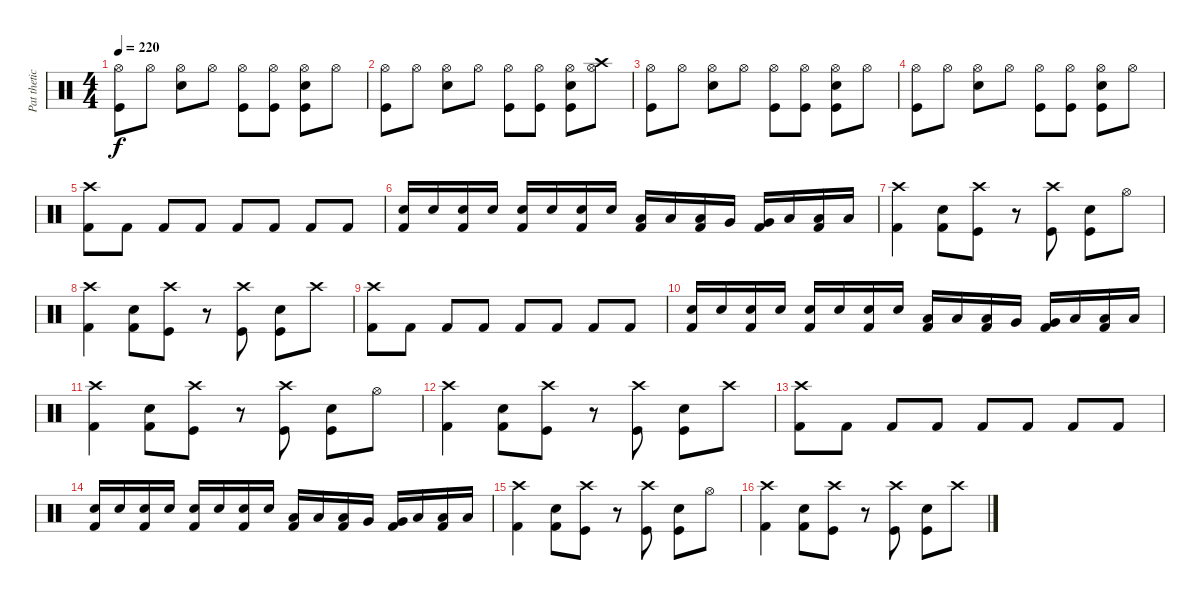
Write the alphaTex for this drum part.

\track ("Pat thetic (Drums)" "Pat thetic") {instrument percussion}
\staff {score}
\articulation defaults
\ts (4 4)
\tempo 220
\clef neutral
\ks c
("Kick (hit)" "Hi-Hat (open)").8{dy f} "Hi-Hat (open)".8 ("Electric Snare (hit)" "Hi-Hat (open)").8 "Hi-Hat (open)".8 ("Kick (hit)" "Hi-Hat (open)").8 ("Kick (hit)" "Hi-Hat (open)").8 ("Kick (hit)" "Electric Snare (hit)" "Hi-Hat (open)").8 "Hi-Hat (open)".8 |
("Kick (hit)" "Hi-Hat (open)").8 "Hi-Hat (open)".8 ("Electric Snare (hit)" "Hi-Hat (open)").8 "Hi-Hat (open)".8 ("Kick (hit)" "Hi-Hat (open)").8 ("Kick (hit)" "Hi-Hat (open)").8 ("Kick (hit)" "Electric Snare (hit)" "Hi-Hat (open)").8 ("Crash high (hit)" "Hi-Hat (open)").8 |
("Kick (hit)" "Hi-Hat (open)").8 "Hi-Hat (open)".8 ("Electric Snare (hit)" "Hi-Hat (open)").8 "Hi-Hat (open)".8 ("Kick (hit)" "Hi-Hat (open)").8 ("Kick (hit)" "Hi-Hat (open)").8 ("Kick (hit)" "Electric Snare (hit)" "Hi-Hat (open)").8 "Hi-Hat (open)".8 |
("Kick (hit)" "Hi-Hat (open)").8 "Hi-Hat (open)".8 ("Electric Snare (hit)" "Hi-Hat (open)").8 "Hi-Hat (open)".8 ("Kick (hit)" "Hi-Hat (open)").8 ("Kick (hit)" "Hi-Hat (open)").8 ("Kick (hit)" "Electric Snare (hit)" "Hi-Hat (open)").8 "Hi-Hat (open)".8 |
("Kick (hit) 2" "Crash high (hit)").8 "Kick (hit) 2".8 "Kick (hit) 2".8 "Kick (hit) 2".8 "Kick (hit) 2".8 "Kick (hit) 2".8 "Kick (hit) 2".8 "Kick (hit) 2".8 |
("Kick (hit) 2" "Electric Snare (hit)").16 "Electric Snare (hit)".16 ("Kick (hit) 2" "Electric Snare (hit)").16 "Electric Snare (hit)".16 ("Kick (hit) 2" "Electric Snare (hit)").16 "Electric Snare (hit)".16 ("Kick (hit) 2" "Electric Snare (hit)").16 "Electric Snare (hit)".16 ("Kick (hit) 2" "Low Tom (hit)").16 "Low Tom (hit)".16 ("Kick (hit) 2" "Low Tom (hit)").16 "Very Low Tom (hit)".16 ("Kick (hit) 2" "Very Low Tom (hit)").16 "Low Floor Tom (hit)".16 ("Kick (hit) 2" "Low Floor Tom (hit)").16 "Low Floor Tom (hit)".16 |
("Kick (hit) 2" "Crash high (hit)").4 ("Kick (hit) 2" "Electric Snare (hit)").8 ("Kick (hit)" "Crash high (hit)").8 r.8 ("Kick (hit)" "Crash high (hit)").8 ("Kick (hit)" "Electric Snare (hit)").8 "Hi-Hat (open)".8 |
("Kick (hit) 2" "Crash high (hit)").4 ("Kick (hit) 2" "Electric Snare (hit)").8 ("Kick (hit)" "Crash high (hit)").8 r.8 ("Kick (hit)" "Crash high (hit)").8 ("Kick (hit)" "Electric Snare (hit)").8 "Crash high (hit)".8 |
("Kick (hit) 2" "Crash high (hit)").8 "Kick (hit) 2".8 "Kick (hit) 2".8 "Kick (hit) 2".8 "Kick (hit) 2".8 "Kick (hit) 2".8 "Kick (hit) 2".8 "Kick (hit) 2".8 |
("Kick (hit) 2" "Electric Snare (hit)").16 "Electric Snare (hit)".16 ("Kick (hit) 2" "Electric Snare (hit)").16 "Electric Snare (hit)".16 ("Kick (hit) 2" "Electric Snare (hit)").16 "Electric Snare (hit)".16 ("Kick (hit) 2" "Electric Snare (hit)").16 "Electric Snare (hit)".16 ("Kick (hit) 2" "Low Tom (hit)").16 "Low Tom (hit)".16 ("Kick (hit) 2" "Low Tom (hit)").16 "Very Low Tom (hit)".16 ("Kick (hit) 2" "Very Low Tom (hit)").16 "Low Floor Tom (hit)".16 ("Kick (hit) 2" "Low Floor Tom (hit)").16 "Low Floor Tom (hit)".16 |
("Kick (hit) 2" "Crash high (hit)").4 ("Kick (hit) 2" "Electric Snare (hit)").8 ("Kick (hit)" "Crash high (hit)").8 r.8 ("Kick (hit)" "Crash high (hit)").8 ("Kick (hit)" "Electric Snare (hit)").8 "Hi-Hat (open)".8 |
("Kick (hit) 2" "Crash high (hit)").4 ("Kick (hit) 2" "Electric Snare (hit)").8 ("Kick (hit)" "Crash high (hit)").8 r.8 ("Kick (hit)" "Crash high (hit)").8 ("Kick (hit)" "Electric Snare (hit)").8 "Crash high (hit)".8 |
("Kick (hit) 2" "Crash high (hit)").8 "Kick (hit) 2".8 "Kick (hit) 2".8 "Kick (hit) 2".8 "Kick (hit) 2".8 "Kick (hit) 2".8 "Kick (hit) 2".8 "Kick (hit) 2".8 |
("Kick (hit) 2" "Electric Snare (hit)").16 "Electric Snare (hit)".16 ("Kick (hit) 2" "Electric Snare (hit)").16 "Electric Snare (hit)".16 ("Kick (hit) 2" "Electric Snare (hit)").16 "Electric Snare (hit)".16 ("Kick (hit) 2" "Electric Snare (hit)").16 "Electric Snare (hit)".16 ("Kick (hit) 2" "Low Tom (hit)").16 "Low Tom (hit)".16 ("Kick (hit) 2" "Low Tom (hit)").16 "Very Low Tom (hit)".16 ("Kick (hit) 2" "Very Low Tom (hit)").16 "Low Floor Tom (hit)".16 ("Kick (hit) 2" "Low Floor Tom (hit)").16 "Low Floor Tom (hit)".16 |
("Kick (hit) 2" "Crash high (hit)").4 ("Kick (hit) 2" "Electric Snare (hit)").8 ("Kick (hit)" "Crash high (hit)").8 r.8 ("Kick (hit)" "Crash high (hit)").8 ("Kick (hit)" "Electric Snare (hit)").8 "Hi-Hat (open)".8 |
("Kick (hit) 2" "Crash high (hit)").4 ("Kick (hit) 2" "Electric Snare (hit)").8 ("Kick (hit)" "Crash high (hit)").8 r.8 ("Kick (hit)" "Crash high (hit)").8 ("Kick (hit)" "Electric Snare (hit)").8 "Crash high (hit)".8
